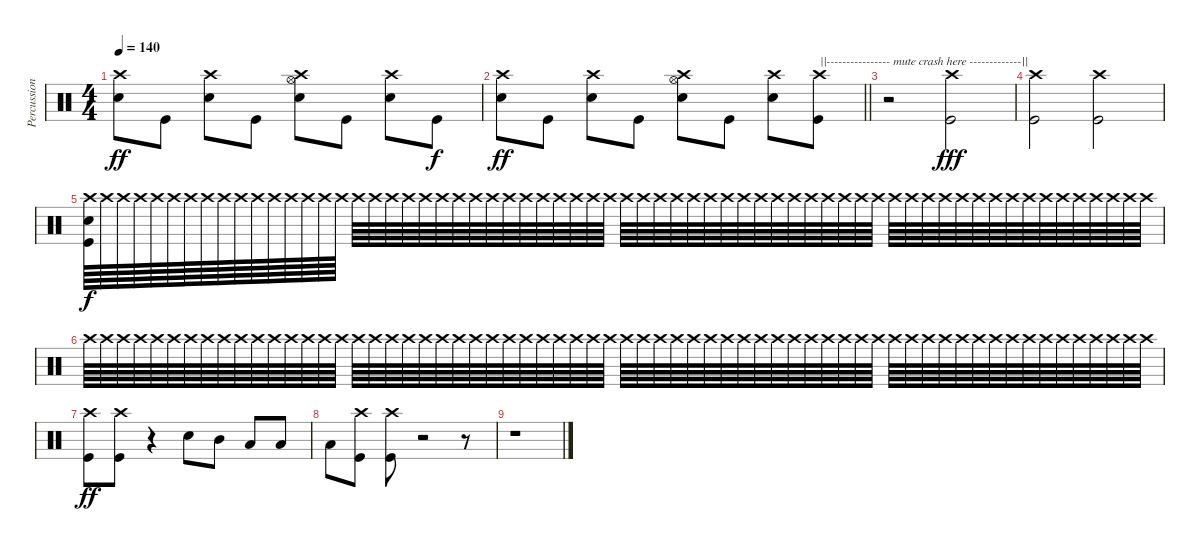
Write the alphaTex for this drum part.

\track ("Percussion" "Percussion") {instrument percussion}
\staff {score}
\articulation defaults
\ts (4 4)
\tempo 140
\clef neutral
\ks c
("Crash high (hit)" "Snare (hit) 2").8{dy ff} "Kick (hit)".8 ("Crash high (hit)" "Snare (hit) 2").8 "Kick (hit)".8 ("Crash high (hit)" "Hi-Hat (open)" "Snare (hit) 2").8 "Kick (hit)".8 ("Crash high (hit)" "Snare (hit) 2").8 "Kick (hit)".8{dy f} |
\barLineRight lightlight
("Crash high (hit)" "Snare (hit) 2").8{dy ff} "Kick (hit)".8 ("Crash high (hit)" "Snare (hit) 2").8 "Kick (hit)".8 ("Crash high (hit)" "Hi-Hat (open)" "Snare (hit) 2").8 "Kick (hit)".8 ("Crash high (hit)" "Snare (hit) 2").8 ("Crash high (hit)" "Kick (hit)").8{txt "||---------------- mute crash here -------------||"} |
r.2 ("Crash high (hit)" "Kick (hit)").2{dy fff} |
("Crash high (hit)" "Kick (hit)").2 ("Crash high (hit)" "Kick (hit)").2 |
("Crash high (hit)" "Snare (hit) 2" "Kick (hit)").64{dy f} "Crash high (hit)".64 "Crash high (hit)".64 "Crash high (hit)".64 "Crash high (hit)".64 "Crash high (hit)".64 "Crash high (hit)".64 "Crash high (hit)".64 "Crash high (hit)".64 "Crash high (hit)".64 "Crash high (hit)".64 "Crash high (hit)".64 "Crash high (hit)".64 "Crash high (hit)".64 "Crash high (hit)".64 "Crash high (hit)".64 "Crash high (hit)".64 "Crash high (hit)".64 "Crash high (hit)".64 "Crash high (hit)".64 "Crash high (hit)".64 "Crash high (hit)".64 "Crash high (hit)".64 "Crash high (hit)".64 "Crash high (hit)".64 "Crash high (hit)".64 "Crash high (hit)".64 "Crash high (hit)".64 "Crash high (hit)".64 "Crash high (hit)".64 "Crash high (hit)".64 "Crash high (hit)".64 "Crash high (hit)".64 "Crash high (hit)".64 "Crash high (hit)".64 "Crash high (hit)".64 "Crash high (hit)".64 "Crash high (hit)".64 "Crash high (hit)".64 "Crash high (hit)".64 "Crash high (hit)".64 "Crash high (hit)".64 "Crash high (hit)".64 "Crash high (hit)".64 "Crash high (hit)".64 "Crash high (hit)".64 "Crash high (hit)".64 "Crash high (hit)".64 "Crash high (hit)".64 "Crash high (hit)".64 "Crash high (hit)".64 "Crash high (hit)".64 "Crash high (hit)".64 "Crash high (hit)".64 "Crash high (hit)".64 "Crash high (hit)".64 "Crash high (hit)".64 "Crash high (hit)".64 "Crash high (hit)".64 "Crash high (hit)".64 "Crash high (hit)".64 "Crash high (hit)".64 "Crash high (hit)".64 "Crash high (hit)".64 |
"Crash high (hit)".64 "Crash high (hit)".64 "Crash high (hit)".64 "Crash high (hit)".64 "Crash high (hit)".64 "Crash high (hit)".64 "Crash high (hit)".64 "Crash high (hit)".64 "Crash high (hit)".64 "Crash high (hit)".64 "Crash high (hit)".64 "Crash high (hit)".64 "Crash high (hit)".64 "Crash high (hit)".64 "Crash high (hit)".64 "Crash high (hit)".64 "Crash high (hit)".64 "Crash high (hit)".64 "Crash high (hit)".64 "Crash high (hit)".64 "Crash high (hit)".64 "Crash high (hit)".64 "Crash high (hit)".64 "Crash high (hit)".64 "Crash high (hit)".64 "Crash high (hit)".64 "Crash high (hit)".64 "Crash high (hit)".64 "Crash high (hit)".64 "Crash high (hit)".64 "Crash high (hit)".64 "Crash high (hit)".64 "Crash high (hit)".64 "Crash high (hit)".64 "Crash high (hit)".64 "Crash high (hit)".64 "Crash high (hit)".64 "Crash high (hit)".64 "Crash high (hit)".64 "Crash high (hit)".64 "Crash high (hit)".64 "Crash high (hit)".64 "Crash high (hit)".64 "Crash high (hit)".64 "Crash high (hit)".64 "Crash high (hit)".64 "Crash high (hit)".64 "Crash high (hit)".64 "Crash high (hit)".64 "Crash high (hit)".64 "Crash high (hit)".64 "Crash high (hit)".64 "Crash high (hit)".64 "Crash high (hit)".64 "Crash high (hit)".64 "Crash high (hit)".64 "Crash high (hit)".64 "Crash high (hit)".64 "Crash high (hit)".64 "Crash high (hit)".64 "Crash high (hit)".64 "Crash high (hit)".64 "Crash high (hit)".64 "Crash high (hit)".64 |
("Crash high (hit)" "Kick (hit)").8{dy ff} ("Crash high (hit)" "Kick (hit)").8 r.4 "Snare (hit) 2".8 "Mid Tom (hit)".8 "Low Tom (hit)".8 "Low Tom (hit)".8 |
"Low Floor Tom (hit)".8 ("Crash high (hit)" "Kick (hit)").8 ("Crash high (hit)" "Kick (hit)").8 r.2 r.8 |
r.1
